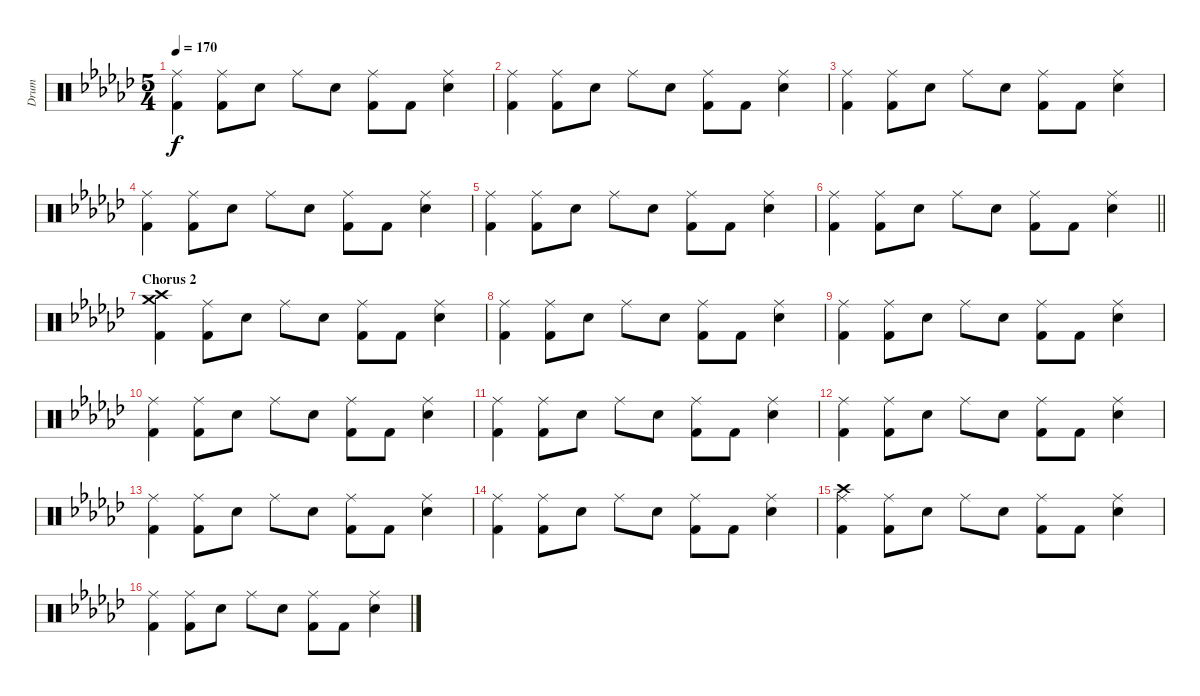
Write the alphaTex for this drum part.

\track ("Drum" "Drum") {instrument percussion}
\staff {score}
\articulation defaults
\ts (5 4)
\tempo 170
\clef neutral
\ks gb
("Ride (middle)" "Kick (hit) 2").4{dy f} ("Ride (middle)" "Kick (hit) 2").8 "Snare (hit) 2".8 "Ride (middle)".8 "Snare (hit) 2".8 ("Ride (middle)" "Kick (hit) 2").8 "Kick (hit) 2".8 ("Ride (middle)" "Snare (hit) 2").4 |
("Ride (middle)" "Kick (hit) 2").4 ("Ride (middle)" "Kick (hit) 2").8 "Snare (hit) 2".8 "Ride (middle)".8 "Snare (hit) 2".8 ("Ride (middle)" "Kick (hit) 2").8 "Kick (hit) 2".8 ("Ride (middle)" "Snare (hit) 2").4 |
("Ride (middle)" "Kick (hit) 2").4 ("Ride (middle)" "Kick (hit) 2").8 "Snare (hit) 2".8 "Ride (middle)".8 "Snare (hit) 2".8 ("Ride (middle)" "Kick (hit) 2").8 "Kick (hit) 2".8 ("Ride (middle)" "Snare (hit) 2").4 |
("Ride (middle)" "Kick (hit) 2").4 ("Ride (middle)" "Kick (hit) 2").8 "Snare (hit) 2".8 "Ride (middle)".8 "Snare (hit) 2".8 ("Ride (middle)" "Kick (hit) 2").8 "Kick (hit) 2".8 ("Ride (middle)" "Snare (hit) 2").4 |
("Ride (middle)" "Kick (hit) 2").4 ("Ride (middle)" "Kick (hit) 2").8 "Snare (hit) 2".8 "Ride (middle)".8 "Snare (hit) 2".8 ("Ride (middle)" "Kick (hit) 2").8 "Kick (hit) 2".8 ("Ride (middle)" "Snare (hit) 2").4 |
\barLineRight lightlight
("Ride (middle)" "Kick (hit) 2").4 ("Ride (middle)" "Kick (hit) 2").8 "Snare (hit) 2".8 "Ride (middle)".8 "Snare (hit) 2".8 ("Ride (middle)" "Kick (hit) 2").8 "Kick (hit) 2".8 ("Ride (middle)" "Snare (hit) 2").4 |
\section ("" "Chorus 2")
("Crash high (hit)" "Crash medium (hit)" "Kick (hit) 2").4 ("Ride (middle)" "Kick (hit) 2").8 "Snare (hit) 2".8 "Ride (middle)".8 "Snare (hit) 2".8 ("Ride (middle)" "Kick (hit) 2").8 "Kick (hit) 2".8 ("Ride (middle)" "Snare (hit) 2").4 |
("Ride (middle)" "Kick (hit) 2").4 ("Ride (middle)" "Kick (hit) 2").8 "Snare (hit) 2".8 "Ride (middle)".8 "Snare (hit) 2".8 ("Ride (middle)" "Kick (hit) 2").8 "Kick (hit) 2".8 ("Ride (middle)" "Snare (hit) 2").4 |
("Ride (middle)" "Kick (hit) 2").4 ("Ride (middle)" "Kick (hit) 2").8 "Snare (hit) 2".8 "Ride (middle)".8 "Snare (hit) 2".8 ("Ride (middle)" "Kick (hit) 2").8 "Kick (hit) 2".8 ("Ride (middle)" "Snare (hit) 2").4 |
("Ride (middle)" "Kick (hit) 2").4 ("Ride (middle)" "Kick (hit) 2").8 "Snare (hit) 2".8 "Ride (middle)".8 "Snare (hit) 2".8 ("Ride (middle)" "Kick (hit) 2").8 "Kick (hit) 2".8 ("Ride (middle)" "Snare (hit) 2").4 |
("Ride (middle)" "Kick (hit) 2").4 ("Ride (middle)" "Kick (hit) 2").8 "Snare (hit) 2".8 "Ride (middle)".8 "Snare (hit) 2".8 ("Ride (middle)" "Kick (hit) 2").8 "Kick (hit) 2".8 ("Ride (middle)" "Snare (hit) 2").4 |
("Ride (middle)" "Kick (hit) 2").4 ("Ride (middle)" "Kick (hit) 2").8 "Snare (hit) 2".8 "Ride (middle)".8 "Snare (hit) 2".8 ("Ride (middle)" "Kick (hit) 2").8 "Kick (hit) 2".8 ("Ride (middle)" "Snare (hit) 2").4 |
("Ride (middle)" "Kick (hit) 2").4 ("Ride (middle)" "Kick (hit) 2").8 "Snare (hit) 2".8 "Ride (middle)".8 "Snare (hit) 2".8 ("Ride (middle)" "Kick (hit) 2").8 "Kick (hit) 2".8 ("Ride (middle)" "Snare (hit) 2").4 |
("Ride (middle)" "Kick (hit) 2").4 ("Ride (middle)" "Kick (hit) 2").8 "Snare (hit) 2".8 "Ride (middle)".8 "Snare (hit) 2".8 ("Ride (middle)" "Kick (hit) 2").8 "Kick (hit) 2".8 ("Ride (middle)" "Snare (hit) 2").4 |
("Crash high (hit)" "Ride (middle)" "Kick (hit) 2").4 ("Ride (middle)" "Kick (hit) 2").8 "Snare (hit) 2".8 "Ride (middle)".8 "Snare (hit) 2".8 ("Ride (middle)" "Kick (hit) 2").8 "Kick (hit) 2".8 ("Ride (middle)" "Snare (hit) 2").4 |
("Ride (middle)" "Kick (hit) 2").4 ("Ride (middle)" "Kick (hit) 2").8 "Snare (hit) 2".8 "Ride (middle)".8 "Snare (hit) 2".8 ("Ride (middle)" "Kick (hit) 2").8 "Kick (hit) 2".8 ("Ride (middle)" "Snare (hit) 2").4
